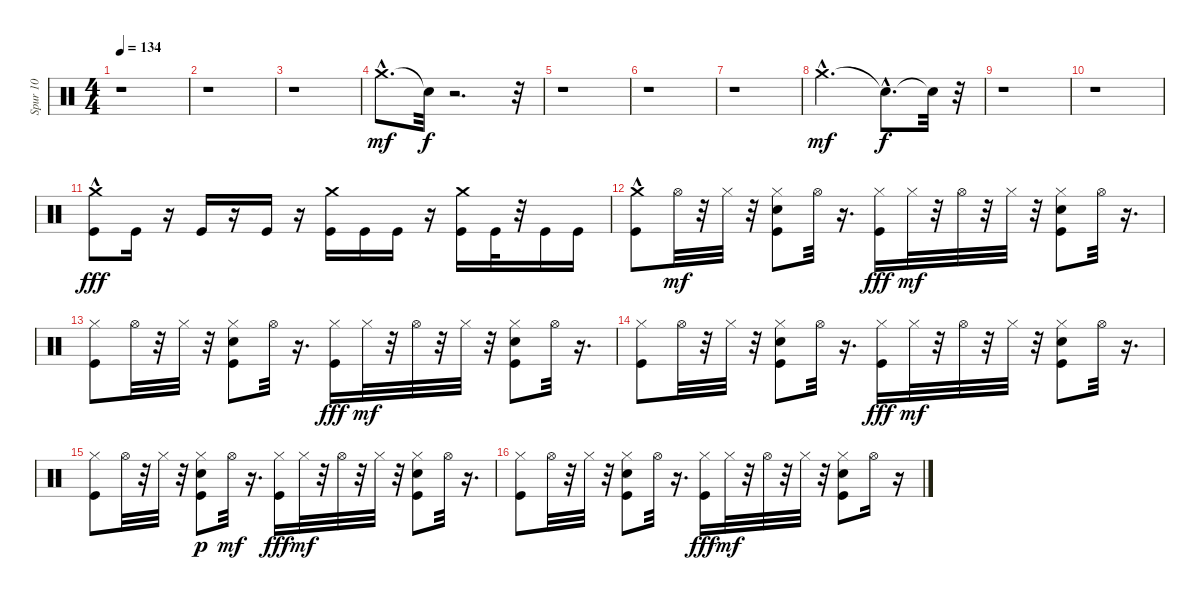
\track ("Spur 10" "Spur 10") {instrument percussion}
\staff {score}
\articulation defaults
\ts (4 4)
\tempo 134
\clef neutral
\ks c
r.1{dy mf} |
r.1 |
r.1 |
"Crash medium (hit)"{hac}.8{d} "Snare (hit)"{t}.32{dy f} r.2{d} r.32 |
r.1 |
r.1 |
r.1 |
"Crash medium (hit)"{hac}.2{d dy mf} "Snare (hit)"{hac t}.8{d dy f} "Snare (hit)"{t}.32 r.32 |
r.1 |
r.1 |
("Crash medium (hit)"{hac} "Kick (hit)").8{dy fff} "Kick (hit)".16 r.16 "Kick (hit)".16 r.16 "Kick (hit)".16 r.16 ("Crash medium (hit)" "Kick (hit)").16 "Kick (hit)".16 "Kick (hit)".16 r.16 ("Crash medium (hit)" "Kick (hit)").16 "Kick (hit)".32 r.32 "Kick (hit)".16 "Kick (hit)".16 |
("Crash medium (hit)"{hac} "Kick (hit)").8 "Hi-Hat (open)".32{dy mf} r.32 "Hi-Hat (closed)".32 r.32 ("Snare (hit) 2" "Kick (hit)" "Hi-Hat (closed)").8 "Hi-Hat (open)".32 r.16{d} ("Hi-Hat (closed)" "Kick (hit)").16{dy fff} "Hi-Hat (closed)".32{dy mf} r.32 "Hi-Hat (open)".32 r.32 "Hi-Hat (closed)".32 r.32 ("Snare (hit) 2" "Kick (hit)" "Hi-Hat (closed)").8 "Hi-Hat (open)".32 r.16{d} |
("Kick (hit)" "Hi-Hat (closed)").8 "Hi-Hat (open)".32 r.32 "Hi-Hat (closed)".32 r.32 ("Snare (hit) 2" "Kick (hit)" "Hi-Hat (closed)").8 "Hi-Hat (open)".32 r.16{d} ("Hi-Hat (closed)" "Kick (hit)").16{dy fff} "Hi-Hat (closed)".32{dy mf} r.32 "Hi-Hat (open)".32 r.32 "Hi-Hat (closed)".32 r.32 ("Kick (hit)" "Snare (hit) 2" "Hi-Hat (closed)").8 "Hi-Hat (open)".32 r.16{d} |
("Kick (hit)" "Hi-Hat (closed)").8 "Hi-Hat (open)".32 r.32 "Hi-Hat (closed)".32 r.32 ("Kick (hit)" "Snare (hit) 2" "Hi-Hat (closed)").8 "Hi-Hat (open)".32 r.16{d} ("Hi-Hat (closed)" "Kick (hit)").16{dy fff} "Hi-Hat (closed)".32{dy mf} r.32 "Hi-Hat (open)".32 r.32 "Hi-Hat (closed)".32 r.32 ("Snare (hit) 2" "Kick (hit)" "Hi-Hat (closed)").8 "Hi-Hat (open)".32 r.16{d} |
("Kick (hit)" "Hi-Hat (closed)").8 "Hi-Hat (open)".32 r.32 "Hi-Hat (closed)".32 r.32 ("Hi-Hat (closed)" "Kick (hit)" "Snare (hit) 2").8{dy p} "Hi-Hat (open)".32{dy mf} r.16{d} ("Hi-Hat (closed)" "Kick (hit)").16{dy fff} "Hi-Hat (closed)".32{dy mf} r.32 "Hi-Hat (open)".32 r.32 "Hi-Hat (closed)".32 r.32 ("Kick (hit)" "Snare (hit) 2" "Hi-Hat (closed)").8 "Hi-Hat (open)".32 r.16{d} |
("Kick (hit)" "Hi-Hat (closed)").8 "Hi-Hat (open)".32 r.32 "Hi-Hat (closed)".32 r.32 ("Snare (hit) 2" "Kick (hit)" "Hi-Hat (closed)").8 "Hi-Hat (open)".32 r.16{d} ("Hi-Hat (closed)" "Kick (hit)").16{dy fff} "Hi-Hat (closed)".32{dy mf} r.32 "Hi-Hat (open)".32 r.32 "Hi-Hat (closed)".32 r.32 ("Snare (hit) 2" "Kick (hit)" "Hi-Hat (closed)").8 "Hi-Hat (open)".16 r.16
